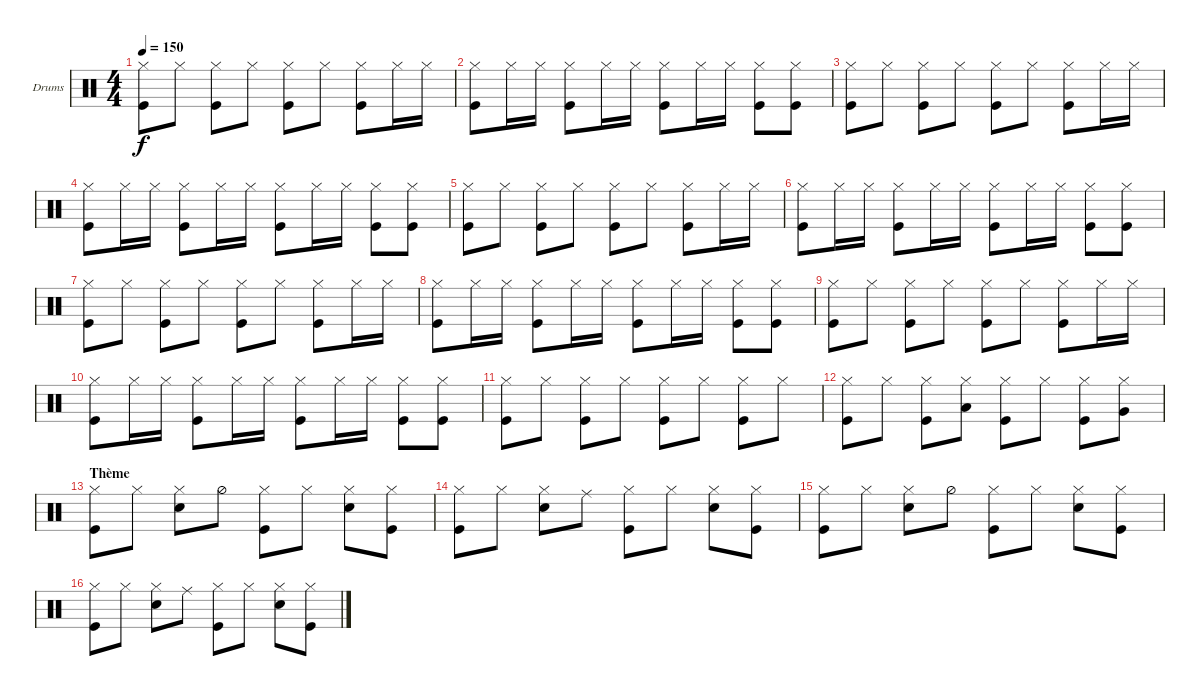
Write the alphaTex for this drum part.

\bracketExtendMode groupsimilarinstruments
\firstSystemTrackNameOrientation horizontal
\otherSystemsTrackNameOrientation horizontal
\track ("Drumkit" "Drums") {instrument percussion}
\staff {score}
\articulation defaults
\ts (4 4)
\tempo 150
\clef neutral
\ks c
("Hi-Hat (closed)" "Kick (hit)").8{dy f} "Hi-Hat (closed)".8 ("Hi-Hat (closed)" "Kick (hit)").8 "Hi-Hat (closed)".8 ("Hi-Hat (closed)" "Kick (hit)").8 "Hi-Hat (closed)".8 ("Hi-Hat (closed)" "Kick (hit)").8 "Hi-Hat (closed)".16 "Hi-Hat (closed)".16 |
("Hi-Hat (closed)" "Kick (hit)").8 "Hi-Hat (closed)".16 "Hi-Hat (closed)".16 ("Hi-Hat (closed)" "Kick (hit)").8 "Hi-Hat (closed)".16 "Hi-Hat (closed)".16 ("Hi-Hat (closed)" "Kick (hit)").8 "Hi-Hat (closed)".16 "Hi-Hat (closed)".16 ("Hi-Hat (closed)" "Kick (hit)").8 ("Hi-Hat (closed)" "Kick (hit)").8 |
("Hi-Hat (closed)" "Kick (hit)").8 "Hi-Hat (closed)".8 ("Hi-Hat (closed)" "Kick (hit)").8 "Hi-Hat (closed)".8 ("Hi-Hat (closed)" "Kick (hit)").8 "Hi-Hat (closed)".8 ("Hi-Hat (closed)" "Kick (hit)").8 "Hi-Hat (closed)".16 "Hi-Hat (closed)".16 |
("Hi-Hat (closed)" "Kick (hit)").8 "Hi-Hat (closed)".16 "Hi-Hat (closed)".16 ("Hi-Hat (closed)" "Kick (hit)").8 "Hi-Hat (closed)".16 "Hi-Hat (closed)".16 ("Hi-Hat (closed)" "Kick (hit)").8 "Hi-Hat (closed)".16 "Hi-Hat (closed)".16 ("Hi-Hat (closed)" "Kick (hit)").8 ("Hi-Hat (closed)" "Kick (hit)").8 |
("Hi-Hat (closed)" "Kick (hit)").8 "Hi-Hat (closed)".8 ("Hi-Hat (closed)" "Kick (hit)").8 "Hi-Hat (closed)".8 ("Hi-Hat (closed)" "Kick (hit)").8 "Hi-Hat (closed)".8 ("Hi-Hat (closed)" "Kick (hit)").8 "Hi-Hat (closed)".16 "Hi-Hat (closed)".16 |
("Hi-Hat (closed)" "Kick (hit)").8 "Hi-Hat (closed)".16 "Hi-Hat (closed)".16 ("Hi-Hat (closed)" "Kick (hit)").8 "Hi-Hat (closed)".16 "Hi-Hat (closed)".16 ("Hi-Hat (closed)" "Kick (hit)").8 "Hi-Hat (closed)".16 "Hi-Hat (closed)".16 ("Hi-Hat (closed)" "Kick (hit)").8 ("Hi-Hat (closed)" "Kick (hit)").8 |
("Hi-Hat (closed)" "Kick (hit)").8 "Hi-Hat (closed)".8 ("Hi-Hat (closed)" "Kick (hit)").8 "Hi-Hat (closed)".8 ("Hi-Hat (closed)" "Kick (hit)").8 "Hi-Hat (closed)".8 ("Hi-Hat (closed)" "Kick (hit)").8 "Hi-Hat (closed)".16 "Hi-Hat (closed)".16 |
("Hi-Hat (closed)" "Kick (hit)").8 "Hi-Hat (closed)".16 "Hi-Hat (closed)".16 ("Hi-Hat (closed)" "Kick (hit)").8 "Hi-Hat (closed)".16 "Hi-Hat (closed)".16 ("Hi-Hat (closed)" "Kick (hit)").8 "Hi-Hat (closed)".16 "Hi-Hat (closed)".16 ("Hi-Hat (closed)" "Kick (hit)").8 ("Hi-Hat (closed)" "Kick (hit)").8 |
("Hi-Hat (closed)" "Kick (hit)").8 "Hi-Hat (closed)".8 ("Hi-Hat (closed)" "Kick (hit)").8 "Hi-Hat (closed)".8 ("Hi-Hat (closed)" "Kick (hit)").8 "Hi-Hat (closed)".8 ("Hi-Hat (closed)" "Kick (hit)").8 "Hi-Hat (closed)".16 "Hi-Hat (closed)".16 |
("Hi-Hat (closed)" "Kick (hit)").8 "Hi-Hat (closed)".16 "Hi-Hat (closed)".16 ("Hi-Hat (closed)" "Kick (hit)").8 "Hi-Hat (closed)".16 "Hi-Hat (closed)".16 ("Hi-Hat (closed)" "Kick (hit)").8 "Hi-Hat (closed)".16 "Hi-Hat (closed)".16 ("Hi-Hat (closed)" "Kick (hit)").8 ("Hi-Hat (closed)" "Kick (hit)").8 |
("Hi-Hat (closed)" "Kick (hit)").8 "Hi-Hat (closed)".8 ("Hi-Hat (closed)" "Kick (hit)").8 "Hi-Hat (closed)".8 ("Hi-Hat (closed)" "Kick (hit)").8 "Hi-Hat (closed)".8 ("Hi-Hat (closed)" "Kick (hit)").8 "Hi-Hat (closed)".8 |
("Hi-Hat (closed)" "Kick (hit)").8 "Hi-Hat (closed)".8 ("Hi-Hat (closed)" "Kick (hit)").8 ("Hi-Hat (closed)" "Low Tom (hit)").8 ("Hi-Hat (closed)" "Kick (hit)").8 "Hi-Hat (closed)".8 ("Hi-Hat (closed)" "Kick (hit)").8 ("Hi-Hat (closed)" "Very Low Tom (hit)").8 |
\section ("" "Thème")
("Hi-Hat (closed)" "Kick (hit)").8 "Hi-Hat (closed)".8 ("Hi-Hat (closed)" "Snare (hit) 2").8 "Hi-Hat (half)".8 ("Hi-Hat (closed)" "Kick (hit)").8 "Hi-Hat (closed)".8 ("Hi-Hat (closed)" "Snare (hit) 2").8 ("Hi-Hat (closed)" "Kick (hit)").8 |
("Hi-Hat (closed)" "Kick (hit)").8 "Hi-Hat (closed)".8 ("Hi-Hat (closed)" "Snare (hit) 2").8 "Ride (middle)".8 ("Hi-Hat (closed)" "Kick (hit)").8 "Hi-Hat (closed)".8 ("Hi-Hat (closed)" "Snare (hit) 2").8 ("Hi-Hat (closed)" "Kick (hit)").8 |
("Hi-Hat (closed)" "Kick (hit)").8 "Hi-Hat (closed)".8 ("Hi-Hat (closed)" "Snare (hit) 2").8 "Hi-Hat (half)".8 ("Hi-Hat (closed)" "Kick (hit)").8 "Hi-Hat (closed)".8 ("Hi-Hat (closed)" "Snare (hit) 2").8 ("Hi-Hat (closed)" "Kick (hit)").8 |
("Hi-Hat (closed)" "Kick (hit)").8 "Hi-Hat (closed)".8 ("Hi-Hat (closed)" "Snare (hit) 2").8 "Ride (middle)".8 ("Hi-Hat (closed)" "Kick (hit)").8 "Hi-Hat (closed)".8 ("Hi-Hat (closed)" "Snare (hit) 2").8 ("Hi-Hat (closed)" "Kick (hit)").8
